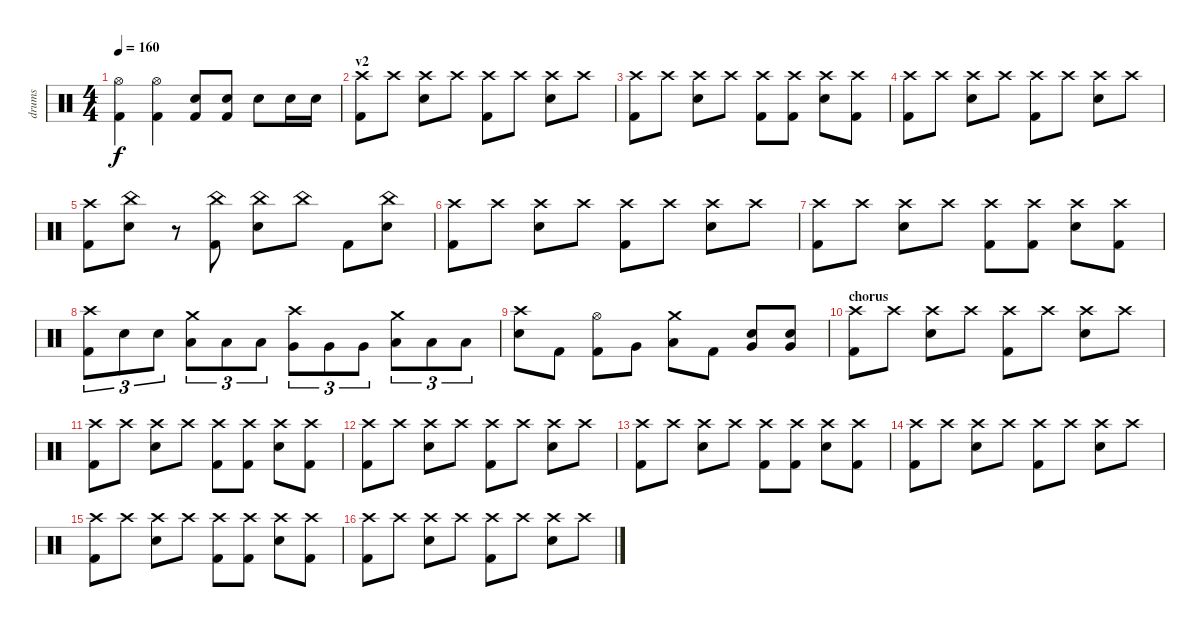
\track ("drums" "drums") {instrument percussion}
\staff {score}
\articulation defaults
\ts (4 4)
\tempo 160
\clef neutral
\ks c
("Hi-Hat (open)" "Kick (hit) 2").4{dy f} ("Hi-Hat (open)" "Kick (hit) 2").4 ("Electric Snare (hit)" "Kick (hit) 2").8 ("Electric Snare (hit)" "Kick (hit) 2").8 "Electric Snare (hit)".8 "Electric Snare (hit)".16 "Electric Snare (hit)".16 |
\section ("" "v2")
("Crash high (hit)" "Kick (hit) 2").8 "Crash high (hit)".8 ("Crash high (hit)" "Electric Snare (hit)").8 "Crash high (hit)".8 ("Crash high (hit)" "Kick (hit) 2").8 "Crash high (hit)".8 ("Crash high (hit)" "Electric Snare (hit)").8 "Crash high (hit)".8 |
("Crash high (hit)" "Kick (hit) 2").8 "Crash high (hit)".8 ("Crash high (hit)" "Electric Snare (hit)").8 "Crash high (hit)".8 ("Crash high (hit)" "Kick (hit) 2").8 ("Crash high (hit)" "Kick (hit) 2").8 ("Crash high (hit)" "Electric Snare (hit)").8 ("Crash high (hit)" "Kick (hit) 2").8 |
("Crash high (hit)" "Kick (hit) 2").8 "Crash high (hit)".8 ("Crash high (hit)" "Electric Snare (hit)").8 "Crash high (hit)".8 ("Crash high (hit)" "Kick (hit) 2").8 "Crash high (hit)".8 ("Crash high (hit)" "Electric Snare (hit)").8 "Crash high (hit)".8 |
("Crash high (hit)" "Kick (hit) 2").8 ("China (hit)" "Electric Snare (hit)").8 r.8 ("China (hit)" "Kick (hit) 2").8 ("China (hit)" "Electric Snare (hit)").8 "China (hit)".8 "Kick (hit) 2".8 ("China (hit)" "Electric Snare (hit)").8 |
("Crash high (hit)" "Kick (hit) 2").8 "Crash high (hit)".8 ("Crash high (hit)" "Electric Snare (hit)").8 "Crash high (hit)".8 ("Crash high (hit)" "Kick (hit) 2").8 "Crash high (hit)".8 ("Crash high (hit)" "Electric Snare (hit)").8 "Crash high (hit)".8 |
("Crash high (hit)" "Kick (hit) 2").8 "Crash high (hit)".8 ("Crash high (hit)" "Electric Snare (hit)").8 "Crash high (hit)".8 ("Crash high (hit)" "Kick (hit) 2").8 ("Crash high (hit)" "Kick (hit) 2").8 ("Crash high (hit)" "Electric Snare (hit)").8 ("Crash high (hit)" "Kick (hit) 2").8 |
("Crash high (hit)" "Kick (hit) 2").8{tu (3 2)} "Electric Snare (hit)".8{tu (3 2)} "Electric Snare (hit)".8{tu (3 2)} ("Crash medium (hit)" "Low Tom (hit)").8{tu (3 2)} "Low Tom (hit)".8{tu (3 2)} "Low Tom (hit)".8{tu (3 2)} ("Crash high (hit)" "Very Low Tom (hit)").8{tu (3 2)} "Very Low Tom (hit)".8{tu (3 2)} "Very Low Tom (hit)".8{tu (3 2)} ("Crash medium (hit)" "Low Floor Tom (hit)").8{tu (3 2)} "Low Floor Tom (hit)".8{tu (3 2)} "Low Floor Tom (hit)".8{tu (3 2)} |
("Crash high (hit)" "Electric Snare (hit)").8 "Kick (hit) 2".8 ("Hi-Hat (open)" "Kick (hit) 2").8 "Very Low Tom (hit)".8 ("Crash medium (hit)" "Low Tom (hit)").8 "Kick (hit) 2".8 ("Very Low Tom (hit)" "Electric Snare (hit)").8 ("Very Low Tom (hit)" "Electric Snare (hit)").8 |
\section ("" "chorus")
("Crash high (hit)" "Kick (hit) 2").8 "Crash high (hit)".8 ("Crash high (hit)" "Electric Snare (hit)").8 "Crash high (hit)".8 ("Crash high (hit)" "Kick (hit) 2").8 "Crash high (hit)".8 ("Crash high (hit)" "Electric Snare (hit)").8 "Crash high (hit)".8 |
("Crash high (hit)" "Kick (hit) 2").8 "Crash high (hit)".8 ("Crash high (hit)" "Electric Snare (hit)").8 "Crash high (hit)".8 ("Crash high (hit)" "Kick (hit) 2").8 ("Crash high (hit)" "Kick (hit) 2").8 ("Crash high (hit)" "Electric Snare (hit)").8 ("Crash high (hit)" "Kick (hit) 2").8 |
("Crash high (hit)" "Kick (hit) 2").8 "Crash high (hit)".8 ("Crash high (hit)" "Electric Snare (hit)").8 "Crash high (hit)".8 ("Crash high (hit)" "Kick (hit) 2").8 "Crash high (hit)".8 ("Crash high (hit)" "Electric Snare (hit)").8 "Crash high (hit)".8 |
("Crash high (hit)" "Kick (hit) 2").8 "Crash high (hit)".8 ("Crash high (hit)" "Electric Snare (hit)").8 "Crash high (hit)".8 ("Crash high (hit)" "Kick (hit) 2").8 ("Crash high (hit)" "Kick (hit) 2").8 ("Crash high (hit)" "Electric Snare (hit)").8 ("Crash high (hit)" "Kick (hit) 2").8 |
("Crash high (hit)" "Kick (hit) 2").8 "Crash high (hit)".8 ("Crash high (hit)" "Electric Snare (hit)").8 "Crash high (hit)".8 ("Crash high (hit)" "Kick (hit) 2").8 "Crash high (hit)".8 ("Crash high (hit)" "Electric Snare (hit)").8 "Crash high (hit)".8 |
("Crash high (hit)" "Kick (hit) 2").8 "Crash high (hit)".8 ("Crash high (hit)" "Electric Snare (hit)").8 "Crash high (hit)".8 ("Crash high (hit)" "Kick (hit) 2").8 ("Crash high (hit)" "Kick (hit) 2").8 ("Crash high (hit)" "Electric Snare (hit)").8 ("Crash high (hit)" "Kick (hit) 2").8 |
("Crash high (hit)" "Kick (hit) 2").8 "Crash high (hit)".8 ("Crash high (hit)" "Electric Snare (hit)").8 "Crash high (hit)".8 ("Crash high (hit)" "Kick (hit) 2").8 "Crash high (hit)".8 ("Crash high (hit)" "Electric Snare (hit)").8 "Crash high (hit)".8
